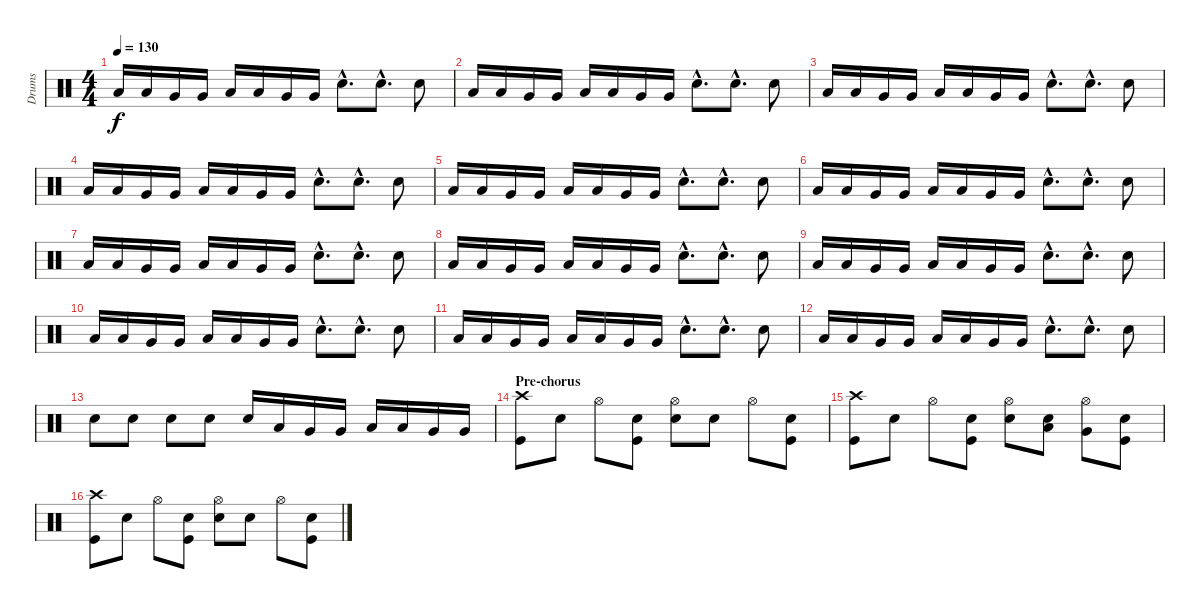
\track ("Drums" "Drums") {instrument percussion}
\staff {score}
\articulation defaults
\ts (4 4)
\tempo 130
\clef neutral
\ks c "Low Tom (hit)".16{dy f} "Low Tom (hit)".16 "Very Low Tom (hit)".16 "Very Low Tom (hit)".16 "Low Tom (hit)".16 "Low Tom (hit)".16 "Very Low Tom (hit)".16 "Very Low Tom (hit)".16 "Electric Snare (hit)"{hac}.8{d} "Electric Snare (hit)"{hac}.8{d} "Electric Snare (hit)".8
|
"Low Tom (hit)".16 "Low Tom (hit)".16 "Very Low Tom (hit)".16 "Very Low Tom (hit)".16 "Low Tom (hit)".16 "Low Tom (hit)".16 "Very Low Tom (hit)".16 "Very Low Tom (hit)".16 "Electric Snare (hit)"{hac}.8{d} "Electric Snare (hit)"{hac}.8{d} "Electric Snare (hit)".8 |
"Low Tom (hit)".16 "Low Tom (hit)".16 "Very Low Tom (hit)".16 "Very Low Tom (hit)".16 "Low Tom (hit)".16 "Low Tom (hit)".16 "Very Low Tom (hit)".16 "Very Low Tom (hit)".16 "Electric Snare (hit)"{hac}.8{d} "Electric Snare (hit)"{hac}.8{d} "Electric Snare (hit)".8 |
"Low Tom (hit)".16 "Low Tom (hit)".16 "Very Low Tom (hit)".16 "Very Low Tom (hit)".16 "Low Tom (hit)".16 "Low Tom (hit)".16 "Very Low Tom (hit)".16 "Very Low Tom (hit)".16 "Electric Snare (hit)"{hac}.8{d} "Electric Snare (hit)"{hac}.8{d} "Electric Snare (hit)".8 |
"Low Tom (hit)".16 "Low Tom (hit)".16 "Very Low Tom (hit)".16 "Very Low Tom (hit)".16 "Low Tom (hit)".16 "Low Tom (hit)".16 "Very Low Tom (hit)".16 "Very Low Tom (hit)".16 "Electric Snare (hit)"{hac}.8{d} "Electric Snare (hit)"{hac}.8{d} "Electric Snare (hit)".8 |
"Low Tom (hit)".16 "Low Tom (hit)".16 "Very Low Tom (hit)".16 "Very Low Tom (hit)".16 "Low Tom (hit)".16 "Low Tom (hit)".16 "Very Low Tom (hit)".16 "Very Low Tom (hit)".16 "Electric Snare (hit)"{hac}.8{d} "Electric Snare (hit)"{hac}.8{d} "Electric Snare (hit)".8 |
"Low Tom (hit)".16 "Low Tom (hit)".16 "Very Low Tom (hit)".16 "Very Low Tom (hit)".16 "Low Tom (hit)".16 "Low Tom (hit)".16 "Very Low Tom (hit)".16 "Very Low Tom (hit)".16 "Electric Snare (hit)"{hac}.8{d} "Electric Snare (hit)"{hac}.8{d} "Electric Snare (hit)".8 |
"Low Tom (hit)".16 "Low Tom (hit)".16 "Very Low Tom (hit)".16 "Very Low Tom (hit)".16 "Low Tom (hit)".16 "Low Tom (hit)".16 "Very Low Tom (hit)".16 "Very Low Tom (hit)".16 "Electric Snare (hit)"{hac}.8{d} "Electric Snare (hit)"{hac}.8{d} "Electric Snare (hit)".8 |
"Low Tom (hit)".16 "Low Tom (hit)".16 "Very Low Tom (hit)".16 "Very Low Tom (hit)".16 "Low Tom (hit)".16 "Low Tom (hit)".16 "Very Low Tom (hit)".16 "Very Low Tom (hit)".16 "Electric Snare (hit)"{hac}.8{d} "Electric Snare (hit)"{hac}.8{d} "Electric Snare (hit)".8 |
"Low Tom (hit)".16 "Low Tom (hit)".16 "Very Low Tom (hit)".16 "Very Low Tom (hit)".16 "Low Tom (hit)".16 "Low Tom (hit)".16 "Very Low Tom (hit)".16 "Very Low Tom (hit)".16 "Electric Snare (hit)"{hac}.8{d} "Electric Snare (hit)"{hac}.8{d} "Electric Snare (hit)".8 |
"Low Tom (hit)".16 "Low Tom (hit)".16 "Very Low Tom (hit)".16 "Very Low Tom (hit)".16 "Low Tom (hit)".16 "Low Tom (hit)".16 "Very Low Tom (hit)".16 "Very Low Tom (hit)".16 "Electric Snare (hit)"{hac}.8{d} "Electric Snare (hit)"{hac}.8{d} "Electric Snare (hit)".8 |
"Low Tom (hit)".16 "Low Tom (hit)".16 "Very Low Tom (hit)".16 "Very Low Tom (hit)".16 "Low Tom (hit)".16 "Low Tom (hit)".16 "Very Low Tom (hit)".16 "Very Low Tom (hit)".16 "Electric Snare (hit)"{hac}.8{d} "Electric Snare (hit)"{hac}.8{d} "Electric Snare (hit)".8 |
"Electric Snare (hit)".8 "Electric Snare (hit)".8 "Snare (hit) 2".8 "Snare (hit) 2".8 "Electric Snare (hit)".16 "Low Tom (hit)".16 "Very Low Tom (hit)".16 "Very Low Tom (hit)".16 "Low Tom (hit)".16 "Low Tom (hit)".16 "Very Low Tom (hit)".16 "Very Low Tom (hit)".16 |
\section ("" "Pre-chorus")
("Crash high (hit)" "Kick (hit)").8 "Snare (hit)"{x}.8 "Hi-Hat (open)".8 ("Snare (hit)"{x} "Kick (hit)").8 ("Hi-Hat (open)" "Electric Snare (hit)").8 "Snare (hit)"{x}.8 "Hi-Hat (open)".8 ("Snare (hit)"{x} "Kick (hit)").8 |
("Crash high (hit)" "Kick (hit)").8 "Snare (hit)"{x}.8 "Hi-Hat (open)".8 ("Snare (hit)"{x} "Kick (hit)").8 ("Hi-Hat (open)" "Electric Snare (hit)").8 ("Snare (hit)"{x} "Low Tom (hit)").8 ("Hi-Hat (open)" "Very Low Tom (hit)").8 ("Snare (hit)"{x} "Kick (hit)").8 |
("Crash high (hit)" "Kick (hit)").8 "Snare (hit)"{x}.8 "Hi-Hat (open)".8 ("Snare (hit)"{x} "Kick (hit)").8 ("Hi-Hat (open)" "Electric Snare (hit)").8 "Snare (hit)"{x}.8 "Hi-Hat (open)".8 ("Snare (hit)"{x} "Kick (hit)").8
